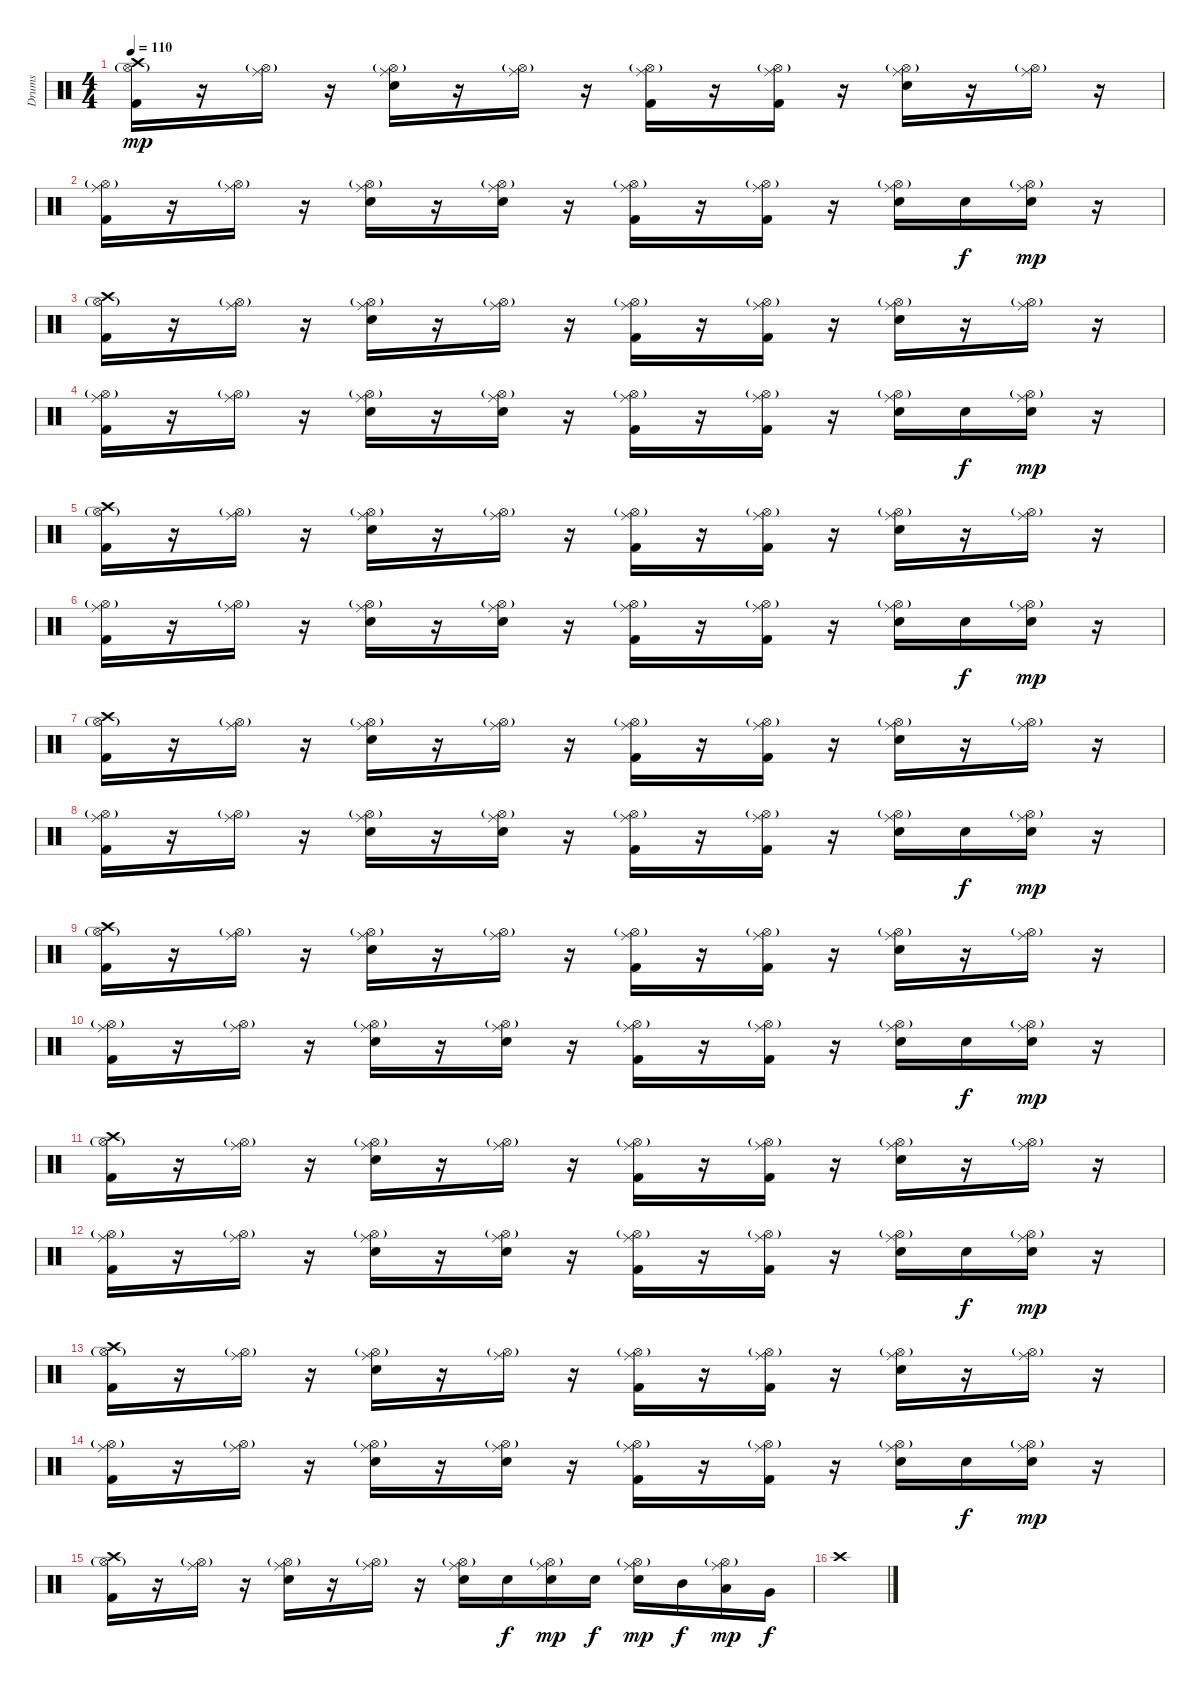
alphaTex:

\track ("Drums" "Drums") {instrument percussion}
\staff {score}
\articulation defaults
\ts (4 4)
\tempo 110
\clef neutral
\ks c
("Crash high (hit)" "Kick (hit) 2" "Hi-Hat (open)"{g}).16{dy mp} r.16 ("Ride (middle)" "Hi-Hat (open)"{g}).16 r.16 ("Ride (middle)" "Electric Snare (hit)" "Hi-Hat (open)"{g}).16 r.16 ("Ride (middle)" "Hi-Hat (open)"{g}).16 r.16 ("Ride (middle)" "Kick (hit) 2" "Hi-Hat (open)"{g}).16 r.16 ("Ride (middle)" "Kick (hit) 2" "Hi-Hat (open)"{g}).16 r.16 ("Ride (middle)" "Electric Snare (hit)" "Hi-Hat (open)"{g}).16 r.16 ("Ride (middle)" "Hi-Hat (open)"{g}).16 r.16 |
("Ride (middle)" "Kick (hit) 2" "Hi-Hat (open)"{g}).16 r.16 ("Ride (middle)" "Hi-Hat (open)"{g}).16 r.16 ("Ride (middle)" "Electric Snare (hit)" "Hi-Hat (open)"{g}).16 r.16 ("Ride (middle)" "Electric Snare (hit)" "Hi-Hat (open)"{g}).16 r.16 ("Ride (middle)" "Kick (hit) 2" "Hi-Hat (open)"{g}).16 r.16 ("Ride (middle)" "Kick (hit) 2" "Hi-Hat (open)"{g}).16 r.16 ("Ride (middle)" "Electric Snare (hit)" "Hi-Hat (open)"{g}).16 "Electric Snare (hit)".16{dy f} ("Ride (middle)" "Electric Snare (hit)" "Hi-Hat (open)"{g}).16{dy mp} r.16 |
("Crash high (hit)" "Kick (hit) 2" "Hi-Hat (open)"{g}).16 r.16 ("Ride (middle)" "Hi-Hat (open)"{g}).16 r.16 ("Ride (middle)" "Electric Snare (hit)" "Hi-Hat (open)"{g}).16 r.16 ("Ride (middle)" "Hi-Hat (open)"{g}).16 r.16 ("Ride (middle)" "Kick (hit) 2" "Hi-Hat (open)"{g}).16 r.16 ("Ride (middle)" "Kick (hit) 2" "Hi-Hat (open)"{g}).16 r.16 ("Ride (middle)" "Electric Snare (hit)" "Hi-Hat (open)"{g}).16 r.16 ("Ride (middle)" "Hi-Hat (open)"{g}).16 r.16 |
("Ride (middle)" "Kick (hit) 2" "Hi-Hat (open)"{g}).16 r.16 ("Ride (middle)" "Hi-Hat (open)"{g}).16 r.16 ("Ride (middle)" "Electric Snare (hit)" "Hi-Hat (open)"{g}).16 r.16 ("Ride (middle)" "Electric Snare (hit)" "Hi-Hat (open)"{g}).16 r.16 ("Ride (middle)" "Kick (hit) 2" "Hi-Hat (open)"{g}).16 r.16 ("Ride (middle)" "Kick (hit) 2" "Hi-Hat (open)"{g}).16 r.16 ("Ride (middle)" "Electric Snare (hit)" "Hi-Hat (open)"{g}).16 "Electric Snare (hit)".16{dy f} ("Ride (middle)" "Electric Snare (hit)" "Hi-Hat (open)"{g}).16{dy mp} r.16 |
("Crash high (hit)" "Kick (hit) 2" "Hi-Hat (open)"{g}).16 r.16 ("Ride (middle)" "Hi-Hat (open)"{g}).16 r.16 ("Ride (middle)" "Electric Snare (hit)" "Hi-Hat (open)"{g}).16 r.16 ("Ride (middle)" "Hi-Hat (open)"{g}).16 r.16 ("Ride (middle)" "Kick (hit) 2" "Hi-Hat (open)"{g}).16 r.16 ("Ride (middle)" "Kick (hit) 2" "Hi-Hat (open)"{g}).16 r.16 ("Ride (middle)" "Electric Snare (hit)" "Hi-Hat (open)"{g}).16 r.16 ("Ride (middle)" "Hi-Hat (open)"{g}).16 r.16 |
("Ride (middle)" "Kick (hit) 2" "Hi-Hat (open)"{g}).16 r.16 ("Ride (middle)" "Hi-Hat (open)"{g}).16 r.16 ("Ride (middle)" "Electric Snare (hit)" "Hi-Hat (open)"{g}).16 r.16 ("Ride (middle)" "Electric Snare (hit)" "Hi-Hat (open)"{g}).16 r.16 ("Ride (middle)" "Kick (hit) 2" "Hi-Hat (open)"{g}).16 r.16 ("Ride (middle)" "Kick (hit) 2" "Hi-Hat (open)"{g}).16 r.16 ("Ride (middle)" "Electric Snare (hit)" "Hi-Hat (open)"{g}).16 "Electric Snare (hit)".16{dy f} ("Ride (middle)" "Electric Snare (hit)" "Hi-Hat (open)"{g}).16{dy mp} r.16 |
("Crash high (hit)" "Kick (hit) 2" "Hi-Hat (open)"{g}).16 r.16 ("Ride (middle)" "Hi-Hat (open)"{g}).16 r.16 ("Ride (middle)" "Electric Snare (hit)" "Hi-Hat (open)"{g}).16 r.16 ("Ride (middle)" "Hi-Hat (open)"{g}).16 r.16 ("Ride (middle)" "Kick (hit) 2" "Hi-Hat (open)"{g}).16 r.16 ("Ride (middle)" "Kick (hit) 2" "Hi-Hat (open)"{g}).16 r.16 ("Ride (middle)" "Electric Snare (hit)" "Hi-Hat (open)"{g}).16 r.16 ("Ride (middle)" "Hi-Hat (open)"{g}).16 r.16 |
("Ride (middle)" "Kick (hit) 2" "Hi-Hat (open)"{g}).16 r.16 ("Ride (middle)" "Hi-Hat (open)"{g}).16 r.16 ("Ride (middle)" "Electric Snare (hit)" "Hi-Hat (open)"{g}).16 r.16 ("Ride (middle)" "Electric Snare (hit)" "Hi-Hat (open)"{g}).16 r.16 ("Ride (middle)" "Kick (hit) 2" "Hi-Hat (open)"{g}).16 r.16 ("Ride (middle)" "Kick (hit) 2" "Hi-Hat (open)"{g}).16 r.16 ("Ride (middle)" "Electric Snare (hit)" "Hi-Hat (open)"{g}).16 "Electric Snare (hit)".16{dy f} ("Ride (middle)" "Electric Snare (hit)" "Hi-Hat (open)"{g}).16{dy mp} r.16 |
("Crash high (hit)" "Kick (hit) 2" "Hi-Hat (open)"{g}).16 r.16 ("Ride (middle)" "Hi-Hat (open)"{g}).16 r.16 ("Ride (middle)" "Electric Snare (hit)" "Hi-Hat (open)"{g}).16 r.16 ("Ride (middle)" "Hi-Hat (open)"{g}).16 r.16 ("Ride (middle)" "Kick (hit) 2" "Hi-Hat (open)"{g}).16 r.16 ("Ride (middle)" "Kick (hit) 2" "Hi-Hat (open)"{g}).16 r.16 ("Ride (middle)" "Electric Snare (hit)" "Hi-Hat (open)"{g}).16 r.16 ("Ride (middle)" "Hi-Hat (open)"{g}).16 r.16 |
("Ride (middle)" "Kick (hit) 2" "Hi-Hat (open)"{g}).16 r.16 ("Ride (middle)" "Hi-Hat (open)"{g}).16 r.16 ("Ride (middle)" "Electric Snare (hit)" "Hi-Hat (open)"{g}).16 r.16 ("Ride (middle)" "Electric Snare (hit)" "Hi-Hat (open)"{g}).16 r.16 ("Ride (middle)" "Kick (hit) 2" "Hi-Hat (open)"{g}).16 r.16 ("Ride (middle)" "Kick (hit) 2" "Hi-Hat (open)"{g}).16 r.16 ("Ride (middle)" "Electric Snare (hit)" "Hi-Hat (open)"{g}).16 "Electric Snare (hit)".16{dy f} ("Ride (middle)" "Electric Snare (hit)" "Hi-Hat (open)"{g}).16{dy mp} r.16 |
("Crash high (hit)" "Kick (hit) 2" "Hi-Hat (open)"{g}).16 r.16 ("Ride (middle)" "Hi-Hat (open)"{g}).16 r.16 ("Ride (middle)" "Electric Snare (hit)" "Hi-Hat (open)"{g}).16 r.16 ("Ride (middle)" "Hi-Hat (open)"{g}).16 r.16 ("Ride (middle)" "Kick (hit) 2" "Hi-Hat (open)"{g}).16 r.16 ("Ride (middle)" "Kick (hit) 2" "Hi-Hat (open)"{g}).16 r.16 ("Ride (middle)" "Electric Snare (hit)" "Hi-Hat (open)"{g}).16 r.16 ("Ride (middle)" "Hi-Hat (open)"{g}).16 r.16 |
("Ride (middle)" "Kick (hit) 2" "Hi-Hat (open)"{g}).16 r.16 ("Ride (middle)" "Hi-Hat (open)"{g}).16 r.16 ("Ride (middle)" "Electric Snare (hit)" "Hi-Hat (open)"{g}).16 r.16 ("Ride (middle)" "Electric Snare (hit)" "Hi-Hat (open)"{g}).16 r.16 ("Ride (middle)" "Kick (hit) 2" "Hi-Hat (open)"{g}).16 r.16 ("Ride (middle)" "Kick (hit) 2" "Hi-Hat (open)"{g}).16 r.16 ("Ride (middle)" "Electric Snare (hit)" "Hi-Hat (open)"{g}).16 "Electric Snare (hit)".16{dy f} ("Ride (middle)" "Electric Snare (hit)" "Hi-Hat (open)"{g}).16{dy mp} r.16 |
("Crash high (hit)" "Kick (hit) 2" "Hi-Hat (open)"{g}).16 r.16 ("Ride (middle)" "Hi-Hat (open)"{g}).16 r.16 ("Ride (middle)" "Electric Snare (hit)" "Hi-Hat (open)"{g}).16 r.16 ("Ride (middle)" "Hi-Hat (open)"{g}).16 r.16 ("Ride (middle)" "Kick (hit) 2" "Hi-Hat (open)"{g}).16 r.16 ("Ride (middle)" "Kick (hit) 2" "Hi-Hat (open)"{g}).16 r.16 ("Ride (middle)" "Electric Snare (hit)" "Hi-Hat (open)"{g}).16 r.16 ("Ride (middle)" "Hi-Hat (open)"{g}).16 r.16 |
("Ride (middle)" "Kick (hit) 2" "Hi-Hat (open)"{g}).16 r.16 ("Ride (middle)" "Hi-Hat (open)"{g}).16 r.16 ("Ride (middle)" "Electric Snare (hit)" "Hi-Hat (open)"{g}).16 r.16 ("Ride (middle)" "Electric Snare (hit)" "Hi-Hat (open)"{g}).16 r.16 ("Ride (middle)" "Kick (hit) 2" "Hi-Hat (open)"{g}).16 r.16 ("Ride (middle)" "Kick (hit) 2" "Hi-Hat (open)"{g}).16 r.16 ("Ride (middle)" "Electric Snare (hit)" "Hi-Hat (open)"{g}).16 "Electric Snare (hit)".16{dy f} ("Ride (middle)" "Electric Snare (hit)" "Hi-Hat (open)"{g}).16{dy mp} r.16 |
("Crash high (hit)" "Kick (hit) 2" "Hi-Hat (open)"{g}).16 r.16 ("Ride (middle)" "Hi-Hat (open)"{g}).16 r.16 ("Ride (middle)" "Electric Snare (hit)" "Hi-Hat (open)"{g}).16 r.16 ("Ride (middle)" "Hi-Hat (open)"{g}).16 r.16 ("Ride (middle)" "Electric Snare (hit)" "Hi-Hat (open)"{g}).16 "Electric Snare (hit)".16{dy f} ("Ride (middle)" "Electric Snare (hit)" "Hi-Hat (open)"{g}).16{dy mp} "Electric Snare (hit)".16{dy f} ("Ride (middle)" "Electric Snare (hit)" "Hi-Hat (open)"{g}).16{dy mp} "Mid Tom (hit)".16{dy f} ("Ride (middle)" "Low Tom (hit)" "Hi-Hat (open)"{g}).16{dy mp} "Very Low Tom (hit)".16{dy f} |
"Crash high (hit)".1
